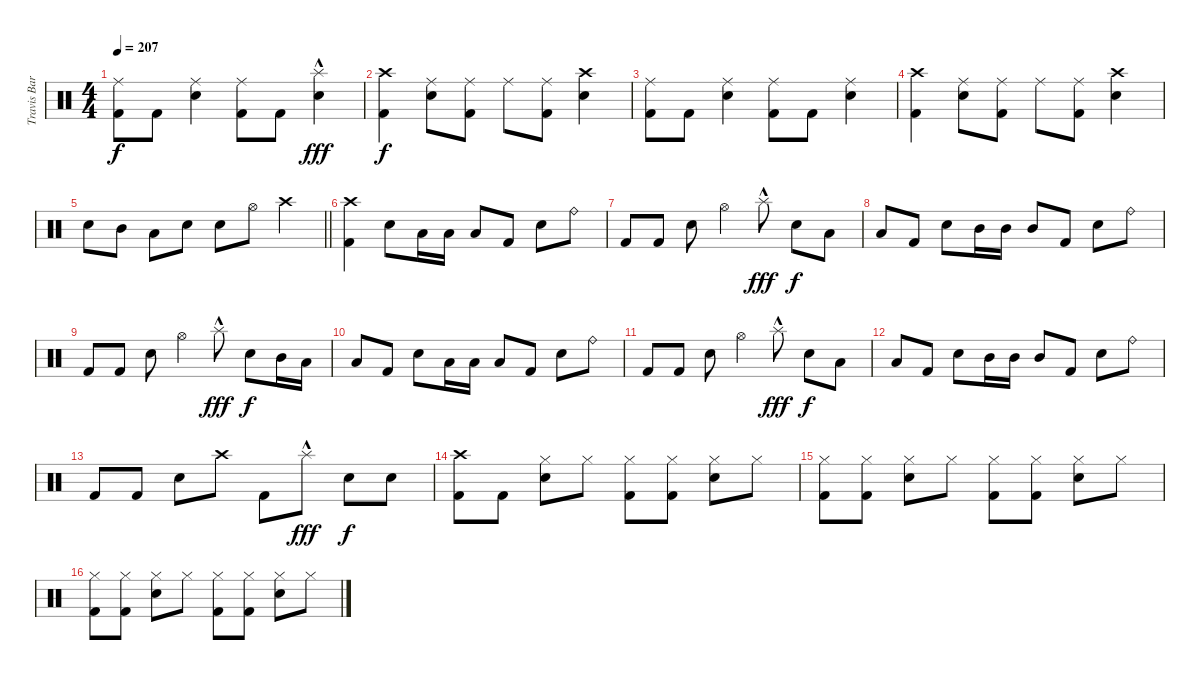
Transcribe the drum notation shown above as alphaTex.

\track ("Travis Barker" "Travis Bar") {instrument percussion}
\staff {score}
\articulation defaults
\ts (4 4)
\tempo 207
\clef neutral
\ks c
("Ride (middle)" "Kick (hit) 2").8{dy f} "Kick (hit) 2".8 ("Ride (middle)" "Electric Snare (hit)").4 ("Ride (middle)" "Kick (hit) 2").8 "Kick (hit) 2".8 ("Splash (hit)"{hac} "Electric Snare (hit)").4{dy fff} |
("Crash high (hit)" "Kick (hit) 2").4{dy f} ("Electric Snare (hit)" "Ride (middle)").8 ("Kick (hit) 2" "Ride (middle)").8 "Ride (middle)".8 ("Kick (hit) 2" "Ride (middle)").8 ("Electric Snare (hit)" "Crash high (hit)").4 |
("Ride (middle)" "Kick (hit) 2").8 "Kick (hit) 2".8 ("Ride (middle)" "Electric Snare (hit)").4 ("Ride (middle)" "Kick (hit) 2").8 "Kick (hit) 2".8 ("Ride (middle)" "Electric Snare (hit)").4 |
("Crash high (hit)" "Kick (hit) 2").4 ("Ride (middle)" "Electric Snare (hit)").8 ("Ride (middle)" "Kick (hit) 2").8 "Ride (middle)".8 ("Ride (middle)" "Kick (hit) 2").8 ("Crash high (hit)" "Electric Snare (hit)").4 |
\barLineRight lightlight "Electric Snare (hit)".8 "Mid Tom (hit)".8 "Low Tom (hit)".8 "Electric Snare (hit)".8 "Electric Snare (hit)".8 "Hi-Hat (open)".8 "Crash high (hit)".4
|
("Crash high (hit)" "Kick (hit) 2").4 "Electric Snare (hit)".8 "Low Tom (hit)".16 "Low Tom (hit)".16 "Low Tom (hit)".8 "Kick (hit) 2".8 "Electric Snare (hit)".8 "Ride (bell)".8 |
"Kick (hit) 2".8 "Kick (hit) 2".8 "Electric Snare (hit)".8 "Hi-Hat (open)".4 "Splash (hit)"{hac}.8{dy fff} "Electric Snare (hit)".8{dy f} "Low Tom (hit)".8 |
"Low Tom (hit)".8 "Kick (hit) 2".8 "Electric Snare (hit)".8 "Mid Tom (hit)".16 "Mid Tom (hit)".16 "Mid Tom (hit)".8 "Kick (hit) 2".8 "Electric Snare (hit)".8 "Ride (bell)".8 |
"Kick (hit) 2".8 "Kick (hit) 2".8 "Electric Snare (hit)".8 "Hi-Hat (open)".4 "Splash (hit)"{hac}.8{dy fff} "Electric Snare (hit)".8{dy f} "Mid Tom (hit)".16 "Low Tom (hit)".16 |
"Low Tom (hit)".8 "Kick (hit) 2".8 "Electric Snare (hit)".8 "Low Tom (hit)".16 "Low Tom (hit)".16 "Low Tom (hit)".8 "Kick (hit) 2".8 "Electric Snare (hit)".8 "Ride (bell)".8 |
"Kick (hit) 2".8 "Kick (hit) 2".8 "Electric Snare (hit)".8 "Hi-Hat (open)".4 "Splash (hit)"{hac}.8{dy fff} "Electric Snare (hit)".8{dy f} "Low Tom (hit)".8 |
"Low Tom (hit)".8 "Kick (hit) 2".8 "Electric Snare (hit)".8 "Mid Tom (hit)".16 "Mid Tom (hit)".16 "Mid Tom (hit)".8 "Kick (hit) 2".8 "Electric Snare (hit)".8 "Ride (bell)".8 |
"Kick (hit) 2".8 "Kick (hit) 2".8 "Electric Snare (hit)".8 "Crash high (hit)".8 "Kick (hit) 2".8 "Splash (hit)"{hac}.8{dy fff} "Electric Snare (hit)".8{dy f} "Electric Snare (hit)".8 |
("Crash high (hit)" "Kick (hit) 2").8 "Kick (hit) 2".8 ("Hi-Hat (closed)" "Electric Snare (hit)").8 "Hi-Hat (closed)".8 ("Hi-Hat (closed)" "Kick (hit) 2").8 ("Hi-Hat (closed)" "Kick (hit) 2").8 ("Hi-Hat (closed)" "Electric Snare (hit)").8 "Hi-Hat (closed)".8 |
("Hi-Hat (closed)" "Kick (hit) 2").8 ("Hi-Hat (closed)" "Kick (hit) 2").8 ("Hi-Hat (closed)" "Electric Snare (hit)").8 "Hi-Hat (closed)".8 ("Hi-Hat (closed)" "Kick (hit) 2").8 ("Hi-Hat (closed)" "Kick (hit) 2").8 ("Hi-Hat (closed)" "Electric Snare (hit)").8 "Hi-Hat (closed)".8 |
("Hi-Hat (closed)" "Kick (hit) 2").8 ("Hi-Hat (closed)" "Kick (hit) 2").8 ("Hi-Hat (closed)" "Electric Snare (hit)").8 "Hi-Hat (closed)".8 ("Hi-Hat (closed)" "Kick (hit) 2").8 ("Hi-Hat (closed)" "Kick (hit) 2").8 ("Hi-Hat (closed)" "Electric Snare (hit)").8 "Hi-Hat (closed)".8
